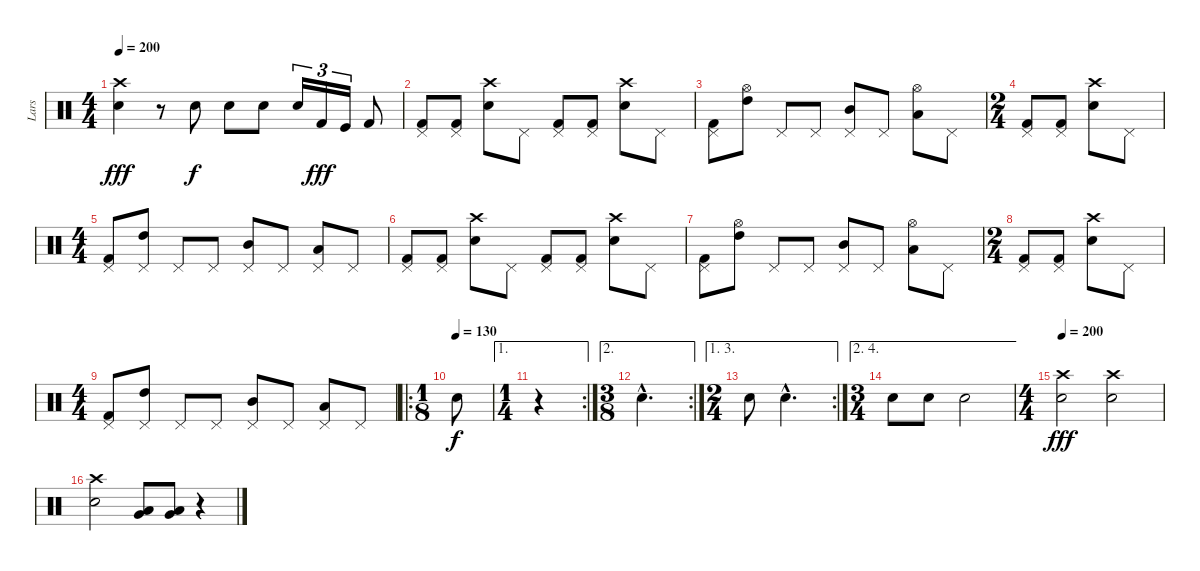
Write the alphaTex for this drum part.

\track ("Lars" "Lars") {instrument percussion}
\staff {score}
\articulation defaults
\ts (4 4)
\tempo 200
\clef neutral
\ks c
("Crash high (hit)" "Snare (hit) 2").4{dy fff} r.8 "Snare (hit) 2".8{dy f} "Snare (hit) 2".8 "Snare (hit) 2".8 "Snare (hit) 2".16{tu (3 2)} "Kick (hit) 2".16{tu (3 2) dy fff} "Kick (hit)".16{tu (3 2)} "Kick (hit) 2".8 |
("Pedal Hi-Hat (hit)" "Kick (hit) 2").8 ("Pedal Hi-Hat (hit)" "Kick (hit) 2").8 ("Crash high (hit)" "Snare (hit) 2").8 "Pedal Hi-Hat (hit)".8 ("Pedal Hi-Hat (hit)" "Kick (hit) 2").8 ("Pedal Hi-Hat (hit)" "Kick (hit) 2").8 ("Crash high (hit)" "Snare (hit) 2").8 "Pedal Hi-Hat (hit)".8 |
("Pedal Hi-Hat (hit)" "Kick (hit) 2").8 ("Hi-Hat (open)" "High Tom (hit)").8 "Pedal Hi-Hat (hit)".8 "Pedal Hi-Hat (hit)".8 ("Pedal Hi-Hat (hit)" "Mid Tom (hit)").8 "Pedal Hi-Hat (hit)".8 ("Hi-Hat (open)" "Low Tom (hit)").8 "Pedal Hi-Hat (hit)".8 |
\ts (2 4)
("Pedal Hi-Hat (hit)" "Kick (hit) 2").8 ("Pedal Hi-Hat (hit)" "Kick (hit) 2").8 ("Crash high (hit)" "Snare (hit) 2").8 "Pedal Hi-Hat (hit)".8 |
\ts (4 4)
("Pedal Hi-Hat (hit)" "Kick (hit) 2").8 ("Pedal Hi-Hat (hit)" "High Tom (hit)").8 "Pedal Hi-Hat (hit)".8 "Pedal Hi-Hat (hit)".8 ("Pedal Hi-Hat (hit)" "Mid Tom (hit)").8 "Pedal Hi-Hat (hit)".8 ("Pedal Hi-Hat (hit)" "Low Tom (hit)").8 "Pedal Hi-Hat (hit)".8 |
("Pedal Hi-Hat (hit)" "Kick (hit) 2").8 ("Pedal Hi-Hat (hit)" "Kick (hit) 2").8 ("Crash high (hit)" "Snare (hit) 2").8 "Pedal Hi-Hat (hit)".8 ("Pedal Hi-Hat (hit)" "Kick (hit) 2").8 ("Pedal Hi-Hat (hit)" "Kick (hit) 2").8 ("Crash high (hit)" "Snare (hit) 2").8 "Pedal Hi-Hat (hit)".8 |
("Pedal Hi-Hat (hit)" "Kick (hit) 2").8 ("Hi-Hat (open)" "High Tom (hit)").8 "Pedal Hi-Hat (hit)".8 "Pedal Hi-Hat (hit)".8 ("Pedal Hi-Hat (hit)" "Mid Tom (hit)").8 "Pedal Hi-Hat (hit)".8 ("Hi-Hat (open)" "Low Tom (hit)").8 "Pedal Hi-Hat (hit)".8 |
\ts (2 4)
("Pedal Hi-Hat (hit)" "Kick (hit) 2").8 ("Pedal Hi-Hat (hit)" "Kick (hit) 2").8 ("Crash high (hit)" "Snare (hit) 2").8 "Pedal Hi-Hat (hit)".8 |
\ts (4 4)
("Pedal Hi-Hat (hit)" "Kick (hit) 2").8 ("Pedal Hi-Hat (hit)" "High Tom (hit)").8 "Pedal Hi-Hat (hit)".8 "Pedal Hi-Hat (hit)".8 ("Pedal Hi-Hat (hit)" "Mid Tom (hit)").8 "Pedal Hi-Hat (hit)".8 ("Pedal Hi-Hat (hit)" "Low Tom (hit)").8 "Pedal Hi-Hat (hit)".8 |
\ro
\ts (1 8)
\tempo (130)
"Snare (hit) 2".8{dy f} |
\ae 1
\rc 2
\ts (1 4)
r.4 |
\ae 2
\rc 2
\ts (3 8)
"Snare (hit) 2"{hac}.4{d} |
\ae (1 3)
\rc 2
\ts (2 4)
"Snare (hit) 2".8 "Snare (hit) 2"{hac}.4{d} |
\ae (2 4)
\ts (3 4)
"Snare (hit) 2".8 "Snare (hit) 2".8 "Snare (hit) 2".2 |
\ts (4 4)
\tempo 200
("Crash high (hit)" "Snare (hit) 2").2{dy fff} ("Crash high (hit)" "Snare (hit) 2").2 |
("Crash high (hit)" "Snare (hit) 2").2 ("Low Tom (hit)" "Very Low Tom (hit)").8 ("Low Tom (hit)" "Very Low Tom (hit)").8 r.4
